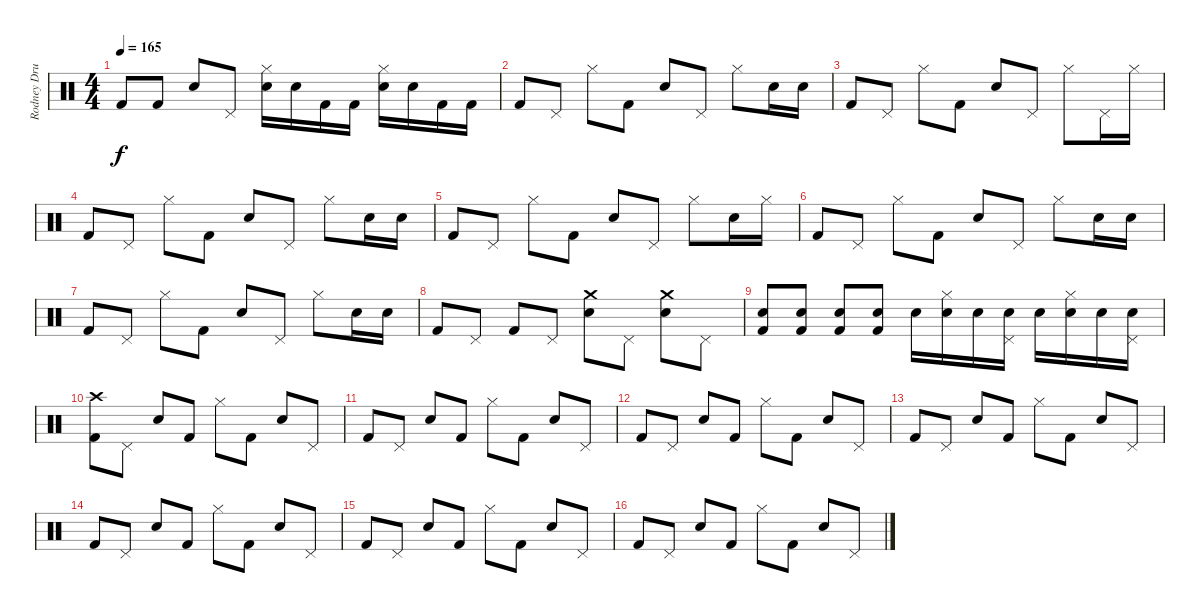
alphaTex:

\track ("Rodney Drums" "Rodney Dru") {instrument percussion}
\staff {score}
\articulation defaults
\ts (4 4)
\tempo 165
\clef neutral
\ks c "Kick (hit) 2".8{dy f} "Kick (hit) 2".8 "Electric Snare (hit)".8 "Pedal Hi-Hat (hit)".8
("Hi-Hat (closed)" "Electric Snare (hit)").16 "Electric Snare (hit)".16 "Kick (hit) 2".16 "Kick (hit) 2".16 ("Hi-Hat (closed)" "Electric Snare (hit)").16 "Electric Snare (hit)".16 "Kick (hit) 2".16 "Kick (hit) 2".16 |
"Kick (hit) 2".8 "Pedal Hi-Hat (hit)".8 "Hi-Hat (closed)".8 "Kick (hit) 2".8 "Electric Snare (hit)".8 "Pedal Hi-Hat (hit)".8 "Hi-Hat (closed)".8 "Electric Snare (hit)".16 "Electric Snare (hit)".16 |
"Kick (hit) 2".8 "Pedal Hi-Hat (hit)".8 "Hi-Hat (closed)".8 "Kick (hit) 2".8 "Electric Snare (hit)".8 "Pedal Hi-Hat (hit)".8 "Hi-Hat (closed)".8 "Pedal Hi-Hat (hit)".16 "Hi-Hat (closed)".16 |
"Kick (hit) 2".8 "Pedal Hi-Hat (hit)".8 "Hi-Hat (closed)".8 "Kick (hit) 2".8 "Electric Snare (hit)".8 "Pedal Hi-Hat (hit)".8 "Hi-Hat (closed)".8 "Electric Snare (hit)".16 "Electric Snare (hit)".16 |
"Kick (hit) 2".8 "Pedal Hi-Hat (hit)".8 "Hi-Hat (closed)".8 "Kick (hit) 2".8 "Electric Snare (hit)".8 "Pedal Hi-Hat (hit)".8 "Hi-Hat (closed)".8 "Electric Snare (hit)".16 "Hi-Hat (closed)".16 |
"Kick (hit) 2".8 "Pedal Hi-Hat (hit)".8 "Hi-Hat (closed)".8 "Kick (hit) 2".8 "Electric Snare (hit)".8 "Pedal Hi-Hat (hit)".8 "Hi-Hat (closed)".8 "Electric Snare (hit)".16 "Electric Snare (hit)".16 |
"Kick (hit) 2".8 "Pedal Hi-Hat (hit)".8 "Hi-Hat (closed)".8 "Kick (hit) 2".8 "Electric Snare (hit)".8 "Pedal Hi-Hat (hit)".8 "Hi-Hat (closed)".8 "Electric Snare (hit)".16 "Electric Snare (hit)".16 |
"Kick (hit) 2".8 "Pedal Hi-Hat (hit)".8 "Kick (hit) 2".8 "Pedal Hi-Hat (hit)".8 ("Crash medium (hit)" "Electric Snare (hit)").8 "Pedal Hi-Hat (hit)".8 ("Crash medium (hit)" "Electric Snare (hit)").8 "Pedal Hi-Hat (hit)".8 |
("Electric Snare (hit)" "Kick (hit) 2").8 ("Electric Snare (hit)" "Kick (hit) 2").8 ("Electric Snare (hit)" "Kick (hit) 2").8 ("Electric Snare (hit)" "Kick (hit) 2").8 "Electric Snare (hit)".16 ("Electric Snare (hit)" "Hi-Hat (closed)").16 "Electric Snare (hit)".16 ("Electric Snare (hit)" "Pedal Hi-Hat (hit)").16 "Electric Snare (hit)".16 ("Electric Snare (hit)" "Hi-Hat (closed)").16 "Electric Snare (hit)".16 ("Electric Snare (hit)" "Pedal Hi-Hat (hit)").16 |
("Crash high (hit)" "Kick (hit) 2").8 "Pedal Hi-Hat (hit)".8 "Electric Snare (hit)".8 "Kick (hit) 2".8 "Hi-Hat (closed)".8 "Kick (hit) 2".8 "Electric Snare (hit)".8 "Pedal Hi-Hat (hit)".8 |
"Kick (hit) 2".8 "Pedal Hi-Hat (hit)".8 "Electric Snare (hit)".8 "Kick (hit) 2".8 "Hi-Hat (closed)".8 "Kick (hit) 2".8 "Electric Snare (hit)".8 "Pedal Hi-Hat (hit)".8 |
"Kick (hit) 2".8 "Pedal Hi-Hat (hit)".8 "Electric Snare (hit)".8 "Kick (hit) 2".8 "Hi-Hat (closed)".8 "Kick (hit) 2".8 "Electric Snare (hit)".8 "Pedal Hi-Hat (hit)".8 |
"Kick (hit) 2".8 "Pedal Hi-Hat (hit)".8 "Electric Snare (hit)".8 "Kick (hit) 2".8 "Hi-Hat (closed)".8 "Kick (hit) 2".8 "Electric Snare (hit)".8 "Pedal Hi-Hat (hit)".8 |
"Kick (hit) 2".8 "Pedal Hi-Hat (hit)".8 "Electric Snare (hit)".8 "Kick (hit) 2".8 "Hi-Hat (closed)".8 "Kick (hit) 2".8 "Electric Snare (hit)".8 "Pedal Hi-Hat (hit)".8 |
"Kick (hit) 2".8 "Pedal Hi-Hat (hit)".8 "Electric Snare (hit)".8 "Kick (hit) 2".8 "Hi-Hat (closed)".8 "Kick (hit) 2".8 "Electric Snare (hit)".8 "Pedal Hi-Hat (hit)".8 |
"Kick (hit) 2".8 "Pedal Hi-Hat (hit)".8 "Electric Snare (hit)".8 "Kick (hit) 2".8 "Hi-Hat (closed)".8 "Kick (hit) 2".8 "Electric Snare (hit)".8 "Pedal Hi-Hat (hit)".8
